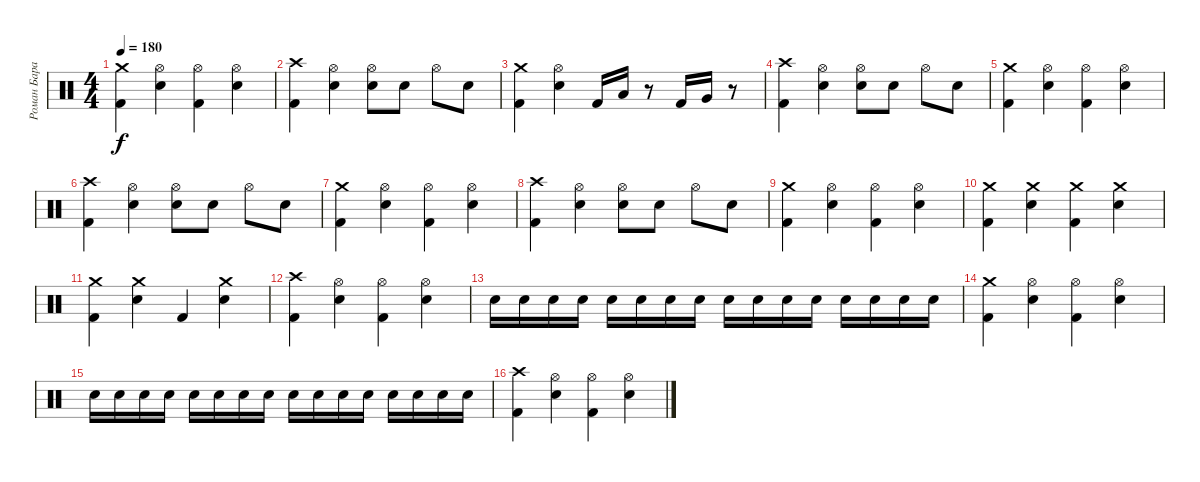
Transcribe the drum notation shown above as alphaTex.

\track ("Роман Баранюк" "Роман Бара") {instrument percussion}
\staff {score}
\articulation defaults
\ts (4 4)
\tempo 180
\clef neutral
\ks c
("Crash medium (hit)" "Kick (hit) 2").4{dy f} ("Hi-Hat (open)" "Snare (hit) 2").4 ("Hi-Hat (open)" "Kick (hit) 2").4 ("Hi-Hat (open)" "Snare (hit) 2").4 |
("Crash high (hit)" "Kick (hit) 2").4 ("Hi-Hat (open)" "Snare (hit) 2").4 ("Hi-Hat (open)" "Snare (hit) 2").8 "Snare (hit) 2".8 "Hi-Hat (open)".8 "Snare (hit) 2".8 |
("Crash medium (hit)" "Kick (hit) 2").4 ("Hi-Hat (open)" "Snare (hit) 2").4 "Kick (hit) 2".16 "Low Tom (hit)".16 r.8 "Kick (hit) 2".16 "Very Low Tom (hit)".16 r.8 |
("Crash high (hit)" "Kick (hit) 2").4 ("Hi-Hat (open)" "Snare (hit) 2").4 ("Hi-Hat (open)" "Snare (hit) 2").8 "Snare (hit) 2".8 "Hi-Hat (open)".8 "Snare (hit) 2".8 |
("Crash medium (hit)" "Kick (hit) 2").4 ("Hi-Hat (open)" "Snare (hit) 2").4 ("Hi-Hat (open)" "Kick (hit) 2").4 ("Hi-Hat (open)" "Snare (hit) 2").4 |
("Crash high (hit)" "Kick (hit) 2").4 ("Hi-Hat (open)" "Snare (hit) 2").4 ("Hi-Hat (open)" "Snare (hit) 2").8 "Snare (hit) 2".8 "Hi-Hat (open)".8 "Snare (hit) 2".8 |
("Crash medium (hit)" "Kick (hit) 2").4 ("Hi-Hat (open)" "Snare (hit) 2").4 ("Hi-Hat (open)" "Kick (hit) 2").4 ("Hi-Hat (open)" "Snare (hit) 2").4 |
("Crash high (hit)" "Kick (hit) 2").4 ("Hi-Hat (open)" "Snare (hit) 2").4 ("Hi-Hat (open)" "Snare (hit) 2").8 "Snare (hit) 2".8 "Hi-Hat (open)".8 "Snare (hit) 2".8 |
("Crash medium (hit)" "Kick (hit) 2").4 ("Hi-Hat (open)" "Snare (hit) 2").4 ("Hi-Hat (open)" "Kick (hit) 2").4 ("Hi-Hat (open)" "Snare (hit) 2").4 |
("Crash medium (hit)" "Kick (hit) 2").4 ("Crash medium (hit)" "Snare (hit) 2").4 ("Crash medium (hit)" "Kick (hit) 2").4 ("Crash medium (hit)" "Snare (hit) 2").4 |
("Crash medium (hit)" "Kick (hit) 2").4 ("Crash medium (hit)" "Snare (hit) 2").4 "Kick (hit) 2".4 ("Crash medium (hit)" "Snare (hit) 2").4 |
("Crash high (hit)" "Kick (hit) 2").4 ("Hi-Hat (open)" "Snare (hit) 2").4 ("Hi-Hat (open)" "Kick (hit) 2").4 ("Hi-Hat (open)" "Snare (hit) 2").4 |
"Snare (hit) 2".16 "Snare (hit) 2".16 "Snare (hit) 2".16 "Snare (hit) 2".16 "Snare (hit) 2".16 "Snare (hit) 2".16 "Snare (hit) 2".16 "Snare (hit) 2".16 "Snare (hit) 2".16 "Snare (hit) 2".16 "Snare (hit) 2".16 "Snare (hit) 2".16 "Snare (hit) 2".16 "Snare (hit) 2".16 "Snare (hit) 2".16 "Snare (hit) 2".16 |
("Crash medium (hit)" "Kick (hit) 2").4 ("Hi-Hat (open)" "Snare (hit) 2").4 ("Hi-Hat (open)" "Kick (hit) 2").4 ("Hi-Hat (open)" "Snare (hit) 2").4 |
"Snare (hit) 2".16 "Snare (hit) 2".16 "Snare (hit) 2".16 "Snare (hit) 2".16 "Snare (hit) 2".16 "Snare (hit) 2".16 "Snare (hit) 2".16 "Snare (hit) 2".16 "Snare (hit) 2".16 "Snare (hit) 2".16 "Snare (hit) 2".16 "Snare (hit) 2".16 "Snare (hit) 2".16 "Snare (hit) 2".16 "Snare (hit) 2".16 "Snare (hit) 2".16 |
("Crash high (hit)" "Kick (hit) 2").4 ("Hi-Hat (open)" "Snare (hit) 2").4 ("Hi-Hat (open)" "Kick (hit) 2").4 ("Hi-Hat (open)" "Snare (hit) 2").4
